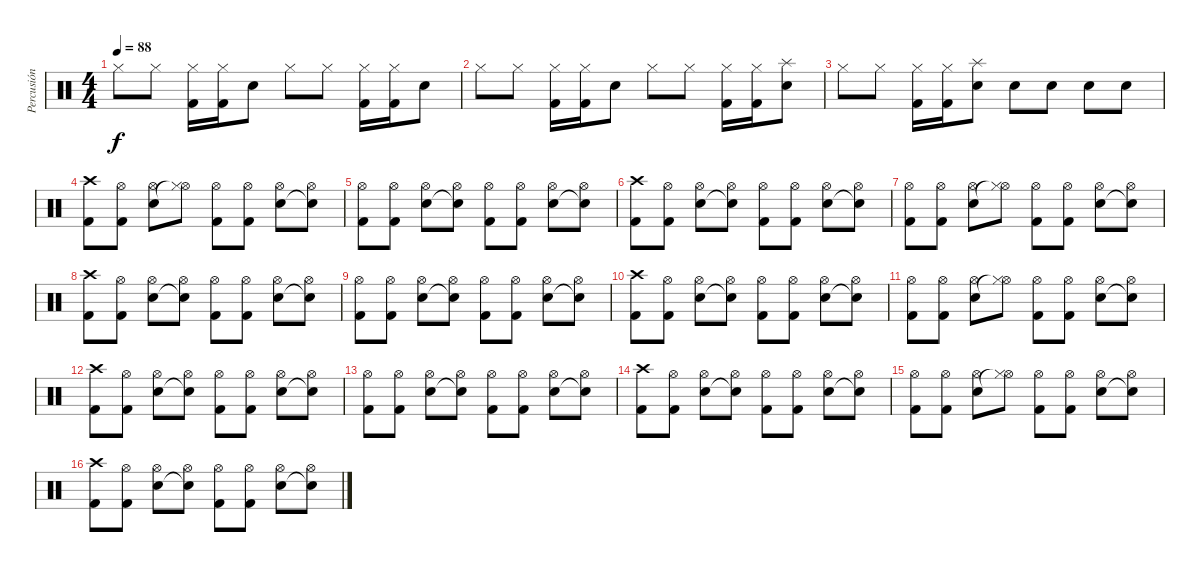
\track ("Percusión" "Percusión") {instrument percussion}
\staff {score}
\articulation defaults
\ts (4 4)
\tempo 88
\clef neutral
\ks c "Hi-Hat (closed)".8{dy f} "Hi-Hat (closed)".8
("Hi-Hat (closed)" "Kick (hit) 2").16 ("Hi-Hat (closed)" "Kick (hit) 2").16 "Snare (hit) 2".8 "Hi-Hat (closed)".8 "Hi-Hat (closed)".8 ("Hi-Hat (closed)" "Kick (hit) 2").16 ("Hi-Hat (closed)" "Kick (hit) 2").16 "Snare (hit) 2".8 |
"Hi-Hat (closed)".8 "Hi-Hat (closed)".8 ("Hi-Hat (closed)" "Kick (hit) 2").16 ("Hi-Hat (closed)" "Kick (hit) 2").16 "Snare (hit) 2".8 "Hi-Hat (closed)".8 "Hi-Hat (closed)".8 ("Hi-Hat (closed)" "Kick (hit) 2").16 ("Hi-Hat (closed)" "Kick (hit) 2").16 ("Splash (hit)" "Snare (hit) 2").8 |
"Hi-Hat (closed)".8 "Hi-Hat (closed)".8 ("Hi-Hat (closed)" "Kick (hit) 2").16 ("Hi-Hat (closed)" "Kick (hit) 2").16 ("Splash (hit)" "Snare (hit) 2").8 "Snare (hit) 2".8 "Snare (hit) 2".8 "Snare (hit) 2".8 "Snare (hit) 2".8 |
("Crash high (hit)" "Kick (hit) 2").8 ("Hi-Hat (open)" "Kick (hit) 2").8 ("Hi-Hat (open)" "Snare (hit) 2").8 ("Hi-Hat (open)" "Hi-Hat (closed)"{t}).8 ("Hi-Hat (open)" "Kick (hit) 2").8 ("Hi-Hat (open)" "Kick (hit) 2").8 ("Hi-Hat (open)" "Snare (hit) 2").8 ("Hi-Hat (open)" "Snare (hit)"{t}).8 |
("Hi-Hat (open)" "Kick (hit) 2").8 ("Hi-Hat (open)" "Kick (hit) 2").8 ("Hi-Hat (open)" "Snare (hit) 2").8 ("Hi-Hat (open)" "Snare (hit)"{t}).8 ("Hi-Hat (open)" "Kick (hit) 2").8 ("Hi-Hat (open)" "Kick (hit) 2").8 ("Hi-Hat (open)" "Snare (hit) 2").8 ("Hi-Hat (open)" "Snare (hit)"{t}).8 |
("Crash high (hit)" "Kick (hit) 2").8 ("Hi-Hat (open)" "Kick (hit) 2").8 ("Hi-Hat (open)" "Snare (hit) 2").8 ("Hi-Hat (open)" "Snare (hit)"{t}).8 ("Hi-Hat (open)" "Kick (hit) 2").8 ("Hi-Hat (open)" "Kick (hit) 2").8 ("Hi-Hat (open)" "Snare (hit) 2").8 ("Hi-Hat (open)" "Snare (hit)"{t}).8 |
("Hi-Hat (open)" "Kick (hit) 2").8 ("Hi-Hat (open)" "Kick (hit) 2").8 ("Hi-Hat (open)" "Snare (hit) 2").8 ("Hi-Hat (open)" "Hi-Hat (closed)"{t}).8 ("Hi-Hat (open)" "Kick (hit) 2").8 ("Hi-Hat (open)" "Kick (hit) 2").8 ("Hi-Hat (open)" "Snare (hit) 2").8 ("Hi-Hat (open)" "Snare (hit)"{t}).8 |
("Crash high (hit)" "Kick (hit) 2").8 ("Hi-Hat (open)" "Kick (hit) 2").8 ("Hi-Hat (open)" "Snare (hit) 2").8 ("Hi-Hat (open)" "Snare (hit)"{t}).8 ("Hi-Hat (open)" "Kick (hit) 2").8 ("Hi-Hat (open)" "Kick (hit) 2").8 ("Hi-Hat (open)" "Snare (hit) 2").8 ("Hi-Hat (open)" "Snare (hit)"{t}).8 |
("Hi-Hat (open)" "Kick (hit) 2").8 ("Hi-Hat (open)" "Kick (hit) 2").8 ("Hi-Hat (open)" "Snare (hit) 2").8 ("Hi-Hat (open)" "Snare (hit)"{t}).8 ("Hi-Hat (open)" "Kick (hit) 2").8 ("Hi-Hat (open)" "Kick (hit) 2").8 ("Hi-Hat (open)" "Snare (hit) 2").8 ("Hi-Hat (open)" "Snare (hit)"{t}).8 |
("Crash high (hit)" "Kick (hit) 2").8 ("Hi-Hat (open)" "Kick (hit) 2").8 ("Hi-Hat (open)" "Snare (hit) 2").8 ("Hi-Hat (open)" "Snare (hit)"{t}).8 ("Hi-Hat (open)" "Kick (hit) 2").8 ("Hi-Hat (open)" "Kick (hit) 2").8 ("Hi-Hat (open)" "Snare (hit) 2").8 ("Hi-Hat (open)" "Snare (hit)"{t}).8 |
("Hi-Hat (open)" "Kick (hit) 2").8 ("Hi-Hat (open)" "Kick (hit) 2").8 ("Hi-Hat (open)" "Snare (hit) 2").8 ("Hi-Hat (open)" "Hi-Hat (closed)"{t}).8 ("Hi-Hat (open)" "Kick (hit) 2").8 ("Hi-Hat (open)" "Kick (hit) 2").8 ("Hi-Hat (open)" "Snare (hit) 2").8 ("Hi-Hat (open)" "Snare (hit)"{t}).8 |
("Crash high (hit)" "Kick (hit) 2").8 ("Hi-Hat (open)" "Kick (hit) 2").8 ("Hi-Hat (open)" "Snare (hit) 2").8 ("Hi-Hat (open)" "Snare (hit)"{t}).8 ("Hi-Hat (open)" "Kick (hit) 2").8 ("Hi-Hat (open)" "Kick (hit) 2").8 ("Hi-Hat (open)" "Snare (hit) 2").8 ("Hi-Hat (open)" "Snare (hit)"{t}).8 |
("Hi-Hat (open)" "Kick (hit) 2").8 ("Hi-Hat (open)" "Kick (hit) 2").8 ("Hi-Hat (open)" "Snare (hit) 2").8 ("Hi-Hat (open)" "Snare (hit)"{t}).8 ("Hi-Hat (open)" "Kick (hit) 2").8 ("Hi-Hat (open)" "Kick (hit) 2").8 ("Hi-Hat (open)" "Snare (hit) 2").8 ("Hi-Hat (open)" "Snare (hit)"{t}).8 |
("Crash high (hit)" "Kick (hit) 2").8 ("Hi-Hat (open)" "Kick (hit) 2").8 ("Hi-Hat (open)" "Snare (hit) 2").8 ("Hi-Hat (open)" "Snare (hit)"{t}).8 ("Hi-Hat (open)" "Kick (hit) 2").8 ("Hi-Hat (open)" "Kick (hit) 2").8 ("Hi-Hat (open)" "Snare (hit) 2").8 ("Hi-Hat (open)" "Snare (hit)"{t}).8 |
("Hi-Hat (open)" "Kick (hit) 2").8 ("Hi-Hat (open)" "Kick (hit) 2").8 ("Hi-Hat (open)" "Snare (hit) 2").8 ("Hi-Hat (open)" "Hi-Hat (closed)"{t}).8 ("Hi-Hat (open)" "Kick (hit) 2").8 ("Hi-Hat (open)" "Kick (hit) 2").8 ("Hi-Hat (open)" "Snare (hit) 2").8 ("Hi-Hat (open)" "Snare (hit)"{t}).8 |
("Crash high (hit)" "Kick (hit) 2").8 ("Hi-Hat (open)" "Kick (hit) 2").8 ("Hi-Hat (open)" "Snare (hit) 2").8 ("Hi-Hat (open)" "Snare (hit)"{t}).8 ("Hi-Hat (open)" "Kick (hit) 2").8 ("Hi-Hat (open)" "Kick (hit) 2").8 ("Hi-Hat (open)" "Snare (hit) 2").8 ("Hi-Hat (open)" "Snare (hit)"{t}).8
